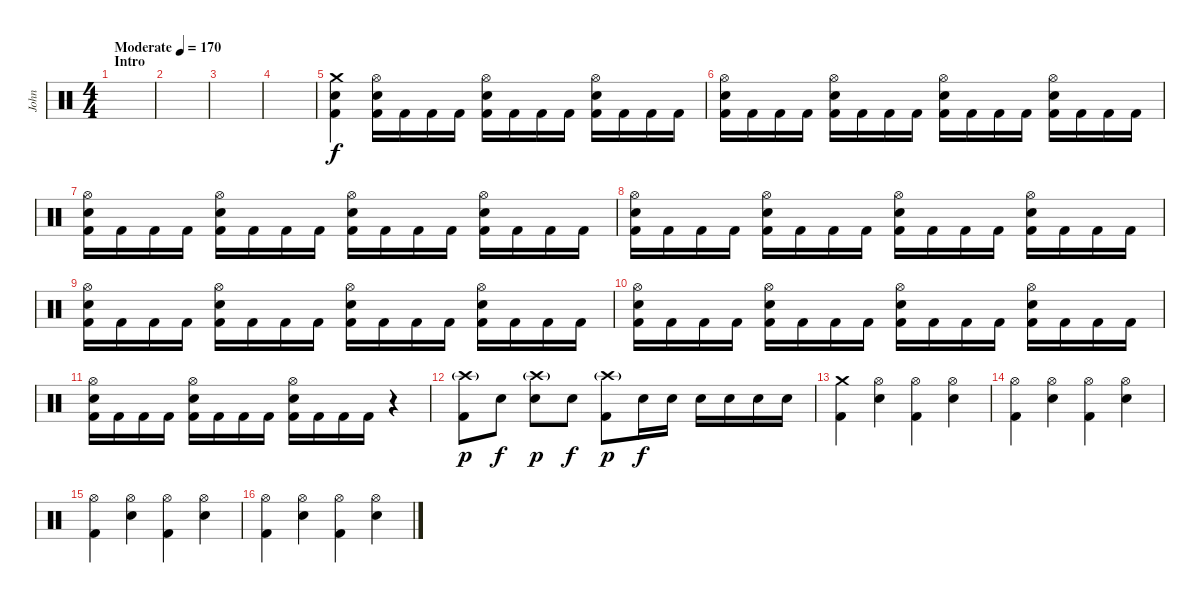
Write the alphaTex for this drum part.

\track ("John" "John") {instrument percussion}
\staff {score}
\articulation defaults
\ts (4 4)
\section ("" "Intro")
\tempo (170 "Moderate")
\clef neutral
\ks c
|
|
|
|
("Crash medium (hit)" "Electric Snare (hit)" "Kick (hit) 2").4 ("Hi-Hat (open)" "Electric Snare (hit)" "Kick (hit) 2").16 "Kick (hit) 2".16 "Kick (hit) 2".16 "Kick (hit) 2".16 ("Hi-Hat (open)" "Electric Snare (hit)" "Kick (hit) 2").16 "Kick (hit) 2".16 "Kick (hit) 2".16 "Kick (hit) 2".16 ("Hi-Hat (open)" "Electric Snare (hit)" "Kick (hit) 2").16 "Kick (hit) 2".16 "Kick (hit) 2".16 "Kick (hit) 2".16 |
("Hi-Hat (open)" "Electric Snare (hit)" "Kick (hit) 2").16 "Kick (hit) 2".16 "Kick (hit) 2".16 "Kick (hit) 2".16 ("Hi-Hat (open)" "Electric Snare (hit)" "Kick (hit) 2").16 "Kick (hit) 2".16 "Kick (hit) 2".16 "Kick (hit) 2".16 ("Hi-Hat (open)" "Electric Snare (hit)" "Kick (hit) 2").16 "Kick (hit) 2".16 "Kick (hit) 2".16 "Kick (hit) 2".16 ("Hi-Hat (open)" "Electric Snare (hit)" "Kick (hit) 2").16 "Kick (hit) 2".16 "Kick (hit) 2".16 "Kick (hit) 2".16 |
("Hi-Hat (open)" "Electric Snare (hit)" "Kick (hit) 2").16 "Kick (hit) 2".16 "Kick (hit) 2".16 "Kick (hit) 2".16 ("Hi-Hat (open)" "Electric Snare (hit)" "Kick (hit) 2").16 "Kick (hit) 2".16 "Kick (hit) 2".16 "Kick (hit) 2".16 ("Hi-Hat (open)" "Electric Snare (hit)" "Kick (hit) 2").16 "Kick (hit) 2".16 "Kick (hit) 2".16 "Kick (hit) 2".16 ("Hi-Hat (open)" "Electric Snare (hit)" "Kick (hit) 2").16 "Kick (hit) 2".16 "Kick (hit) 2".16 "Kick (hit) 2".16 |
("Hi-Hat (open)" "Electric Snare (hit)" "Kick (hit) 2").16 "Kick (hit) 2".16 "Kick (hit) 2".16 "Kick (hit) 2".16 ("Hi-Hat (open)" "Electric Snare (hit)" "Kick (hit) 2").16 "Kick (hit) 2".16 "Kick (hit) 2".16 "Kick (hit) 2".16 ("Hi-Hat (open)" "Electric Snare (hit)" "Kick (hit) 2").16 "Kick (hit) 2".16 "Kick (hit) 2".16 "Kick (hit) 2".16 ("Hi-Hat (open)" "Electric Snare (hit)" "Kick (hit) 2").16 "Kick (hit) 2".16 "Kick (hit) 2".16 "Kick (hit) 2".16 |
("Hi-Hat (open)" "Electric Snare (hit)" "Kick (hit) 2").16 "Kick (hit) 2".16 "Kick (hit) 2".16 "Kick (hit) 2".16 ("Hi-Hat (open)" "Electric Snare (hit)" "Kick (hit) 2").16 "Kick (hit) 2".16 "Kick (hit) 2".16 "Kick (hit) 2".16 ("Hi-Hat (open)" "Electric Snare (hit)" "Kick (hit) 2").16 "Kick (hit) 2".16 "Kick (hit) 2".16 "Kick (hit) 2".16 ("Hi-Hat (open)" "Electric Snare (hit)" "Kick (hit) 2").16 "Kick (hit) 2".16 "Kick (hit) 2".16 "Kick (hit) 2".16 |
("Hi-Hat (open)" "Electric Snare (hit)" "Kick (hit) 2").16 "Kick (hit) 2".16 "Kick (hit) 2".16 "Kick (hit) 2".16 ("Hi-Hat (open)" "Electric Snare (hit)" "Kick (hit) 2").16 "Kick (hit) 2".16 "Kick (hit) 2".16 "Kick (hit) 2".16 ("Hi-Hat (open)" "Electric Snare (hit)" "Kick (hit) 2").16 "Kick (hit) 2".16 "Kick (hit) 2".16 "Kick (hit) 2".16 ("Hi-Hat (open)" "Electric Snare (hit)" "Kick (hit) 2").16 "Kick (hit) 2".16 "Kick (hit) 2".16 "Kick (hit) 2".16 |
("Hi-Hat (open)" "Electric Snare (hit)" "Kick (hit) 2").16 "Kick (hit) 2".16 "Kick (hit) 2".16 "Kick (hit) 2".16 ("Hi-Hat (open)" "Electric Snare (hit)" "Kick (hit) 2").16 "Kick (hit) 2".16 "Kick (hit) 2".16 "Kick (hit) 2".16 ("Hi-Hat (open)" "Electric Snare (hit)" "Kick (hit) 2").16 "Kick (hit) 2".16 "Kick (hit) 2".16 "Kick (hit) 2".16 r.4 |
("Crash high (hit)"{g} "Kick (hit) 2").8{dy p} "Electric Snare (hit)".8{dy f} ("Crash high (hit)"{g} "Electric Snare (hit)").8{dy p} "Electric Snare (hit)".8{dy f} ("Crash high (hit)"{g} "Kick (hit) 2").8{dy p} "Electric Snare (hit)".16{dy f} "Electric Snare (hit)".16 "Electric Snare (hit)".16 "Electric Snare (hit)".16 "Electric Snare (hit)".16 "Electric Snare (hit)".16 |
("Crash medium (hit)" "Kick (hit) 2").4 ("Hi-Hat (open)" "Electric Snare (hit)").4 ("Hi-Hat (open)" "Kick (hit) 2").4 ("Hi-Hat (open)" "Electric Snare (hit)").4 |
("Hi-Hat (open)" "Kick (hit) 2").4 ("Hi-Hat (open)" "Electric Snare (hit)").4 ("Hi-Hat (open)" "Kick (hit) 2").4 ("Hi-Hat (open)" "Electric Snare (hit)").4 |
("Hi-Hat (open)" "Kick (hit) 2").4 ("Hi-Hat (open)" "Electric Snare (hit)").4 ("Hi-Hat (open)" "Kick (hit) 2").4 ("Hi-Hat (open)" "Electric Snare (hit)").4 |
("Hi-Hat (open)" "Kick (hit) 2").4 ("Hi-Hat (open)" "Electric Snare (hit)").4 ("Hi-Hat (open)" "Kick (hit) 2").4 ("Hi-Hat (open)" "Electric Snare (hit)").4
